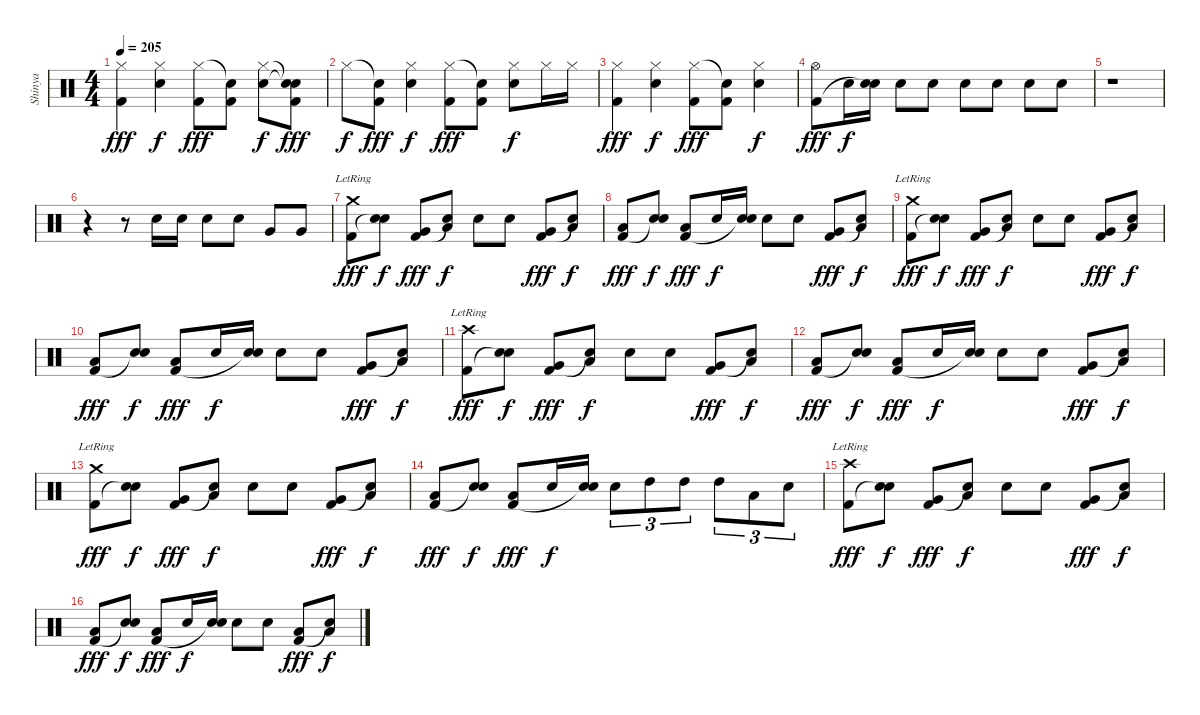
\track ("Shinya" "Shinya") {instrument percussion}
\staff {score}
\articulation defaults
\ts (4 4)
\tempo 205
\clef neutral
\ks c
("Hi-Hat (closed)" "Kick (hit) 2").4{dy fff} ("Hi-Hat (closed)" "Electric Snare (hit)").4{dy f} ("Hi-Hat (closed)" "Kick (hit) 2").8{dy fff} ("Snare (hit)"{t} "Kick (hit) 2").8 ("Hi-Hat (closed)" "Electric Snare (hit)").8{dy f} ("Snare (hit)"{t} "Snare (hit)"{t} "Kick (hit) 2").8{dy fff} |
"Hi-Hat (closed)".8{dy f} ("Snare (hit)"{t} "Kick (hit) 2").8{dy fff} ("Hi-Hat (closed)" "Electric Snare (hit)").4{dy f} ("Hi-Hat (closed)" "Kick (hit) 2").8{dy fff} ("Snare (hit)"{t} "Kick (hit) 2").8 ("Hi-Hat (closed)" "Electric Snare (hit)").8{dy f} "Hi-Hat (closed)".16 "Hi-Hat (closed)".16 |
("Hi-Hat (closed)" "Kick (hit) 2").4{dy fff} ("Hi-Hat (closed)" "Electric Snare (hit)").4{dy f} ("Hi-Hat (closed)" "Kick (hit) 2").8{dy fff} ("Snare (hit)"{t} "Kick (hit) 2").8 ("Hi-Hat (closed)" "Electric Snare (hit)").4{dy f} |
("Hi-Hat (open)" "Kick (hit) 2").8{dy fff} "Electric Snare (hit)".16{dy f} ("Electric Snare (hit)" "Snare (hit)"{t}).16 "Electric Snare (hit)".8 "Electric Snare (hit)".8 "Electric Snare (hit)".8 "Electric Snare (hit)".8 "Electric Snare (hit)".8 "Electric Snare (hit)".8 |
r.1 |
r.4 r.8 "Electric Snare (hit)".16 "Electric Snare (hit)".16 "Electric Snare (hit)".8 "Electric Snare (hit)".8 "Very Low Tom (hit)".8 "Very Low Tom (hit)".8 |
("Crash medium (hit)"{lr} "Kick (hit) 2").8{dy fff} ("Electric Snare (hit)" "Snare (hit)"{t}).8{dy f} ("Very Low Tom (hit)" "Kick (hit) 2").8{dy fff} ("Low Floor Tom (hit)" "Snare (hit)"{t}).8{dy f} "Electric Snare (hit)".8 "Electric Snare (hit)".8 ("Very Low Tom (hit)" "Kick (hit) 2").8{dy fff} ("Low Floor Tom (hit)" "Snare (hit)"{t}).8{dy f} |
("Low Floor Tom (hit)" "Kick (hit) 2").8{dy fff} ("Electric Snare (hit)" "Snare (hit)"{t}).8{dy f} ("Low Floor Tom (hit)" "Kick (hit) 2").8{dy fff} "Electric Snare (hit)".16{dy f} ("Electric Snare (hit)" "Snare (hit)"{t}).16 "Electric Snare (hit)".8 "Electric Snare (hit)".8 ("Very Low Tom (hit)" "Kick (hit) 2").8{dy fff} ("Low Floor Tom (hit)" "Snare (hit)"{t}).8{dy f} |
("Crash medium (hit)"{lr} "Kick (hit) 2").8{dy fff} ("Electric Snare (hit)" "Snare (hit)"{t}).8{dy f} ("Very Low Tom (hit)" "Kick (hit) 2").8{dy fff} ("Low Floor Tom (hit)" "Snare (hit)"{t}).8{dy f} "Electric Snare (hit)".8 "Electric Snare (hit)".8 ("Very Low Tom (hit)" "Kick (hit) 2").8{dy fff} ("Low Floor Tom (hit)" "Snare (hit)"{t}).8{dy f} |
("Low Floor Tom (hit)" "Kick (hit) 2").8{dy fff} ("Electric Snare (hit)" "Snare (hit)"{t}).8{dy f} ("Low Floor Tom (hit)" "Kick (hit) 2").8{dy fff} "Electric Snare (hit)".16{dy f} ("Electric Snare (hit)" "Snare (hit)"{t}).16 "Electric Snare (hit)".8 "Electric Snare (hit)".8 ("Very Low Tom (hit)" "Kick (hit) 2").8{dy fff} ("Low Floor Tom (hit)" "Snare (hit)"{t}).8{dy f} |
("Crash high (hit)"{lr} "Kick (hit) 2").8{dy fff} ("Electric Snare (hit)" "Snare (hit)"{t}).8{dy f} ("Very Low Tom (hit)" "Kick (hit) 2").8{dy fff} ("Low Floor Tom (hit)" "Snare (hit)"{t}).8{dy f} "Electric Snare (hit)".8 "Electric Snare (hit)".8 ("Very Low Tom (hit)" "Kick (hit) 2").8{dy fff} ("Low Floor Tom (hit)" "Snare (hit)"{t}).8{dy f} |
("Low Floor Tom (hit)" "Kick (hit) 2").8{dy fff} ("Electric Snare (hit)" "Snare (hit)"{t}).8{dy f} ("Low Floor Tom (hit)" "Kick (hit) 2").8{dy fff} "Electric Snare (hit)".16{dy f} ("Electric Snare (hit)" "Snare (hit)"{t}).16 "Electric Snare (hit)".8 "Electric Snare (hit)".8 ("Very Low Tom (hit)" "Kick (hit) 2").8{dy fff} ("Low Floor Tom (hit)" "Snare (hit)"{t}).8{dy f} |
("Crash medium (hit)"{lr} "Kick (hit) 2").8{dy fff} ("Electric Snare (hit)" "Snare (hit)"{t}).8{dy f} ("Very Low Tom (hit)" "Kick (hit) 2").8{dy fff} ("Low Floor Tom (hit)" "Snare (hit)"{t}).8{dy f} "Electric Snare (hit)".8 "Electric Snare (hit)".8 ("Very Low Tom (hit)" "Kick (hit) 2").8{dy fff} ("Low Floor Tom (hit)" "Snare (hit)"{t}).8{dy f} |
("Low Floor Tom (hit)" "Kick (hit) 2").8{dy fff} ("Electric Snare (hit)" "Snare (hit)"{t}).8{dy f} ("Low Floor Tom (hit)" "Kick (hit) 2").8{dy fff} "Electric Snare (hit)".16{dy f} ("Electric Snare (hit)" "Snare (hit)"{t}).16 "Electric Snare (hit)".8{tu (3 2)} "High Tom (hit)".8{tu (3 2)} "High Tom (hit)".8{tu (3 2)} "High Tom (hit)".8{tu (3 2)} "Low Tom (hit)".8{tu (3 2)} "Electric Snare (hit)".8{tu (3 2)} |
("Crash high (hit)"{lr} "Kick (hit) 2").8{dy fff} ("Electric Snare (hit)" "Snare (hit)"{t}).8{dy f} ("Very Low Tom (hit)" "Kick (hit) 2").8{dy fff} ("Low Floor Tom (hit)" "Snare (hit)"{t}).8{dy f} "Electric Snare (hit)".8 "Electric Snare (hit)".8 ("Very Low Tom (hit)" "Kick (hit) 2").8{dy fff} ("Low Floor Tom (hit)" "Snare (hit)"{t}).8{dy f} |
("Low Floor Tom (hit)" "Kick (hit) 2").8{dy fff} ("Electric Snare (hit)" "Snare (hit)"{t}).8{dy f} ("Low Floor Tom (hit)" "Kick (hit) 2").8{dy fff} "Electric Snare (hit)".16{dy f} ("Electric Snare (hit)" "Snare (hit)"{t}).16 "Electric Snare (hit)".8 "Electric Snare (hit)".8 ("Low Floor Tom (hit)" "Kick (hit) 2").8{dy fff} ("Low Floor Tom (hit)" "Snare (hit)"{t}).8{dy f}
